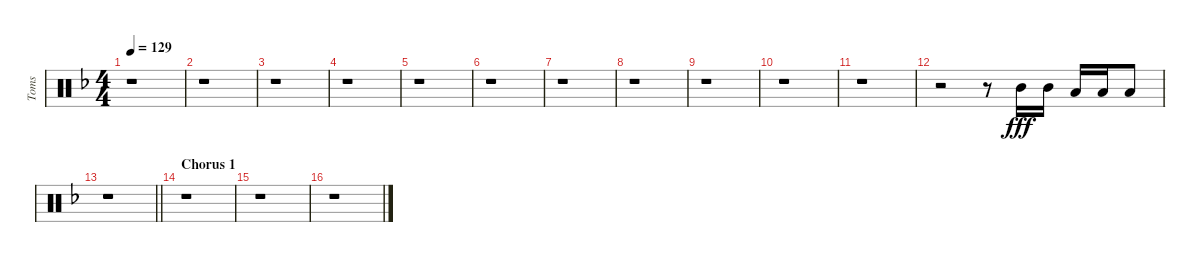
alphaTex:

\track ("Toms" "Toms") {instrument percussion}
\staff {score}
\articulation defaults
\ts (4 4)
\tempo 129
\clef neutral
\ks dminor
r.1{dy ff} |
r.1 |
r.1 |
r.1 |
r.1 |
r.1 |
r.1 |
r.1 |
r.1 |
r.1 |
r.1 |
r.2 r.8 "Mid Tom (hit)".16{dy fff balance 11} "Mid Tom (hit)".16 "Low Tom (hit)".16{balance 8} "Low Tom (hit)".16 "Low Tom (hit)".8 |
\barLineRight lightlight
r.1 |
\section ("" "Chorus 1")
r.1 |
r.1 |
r.1
